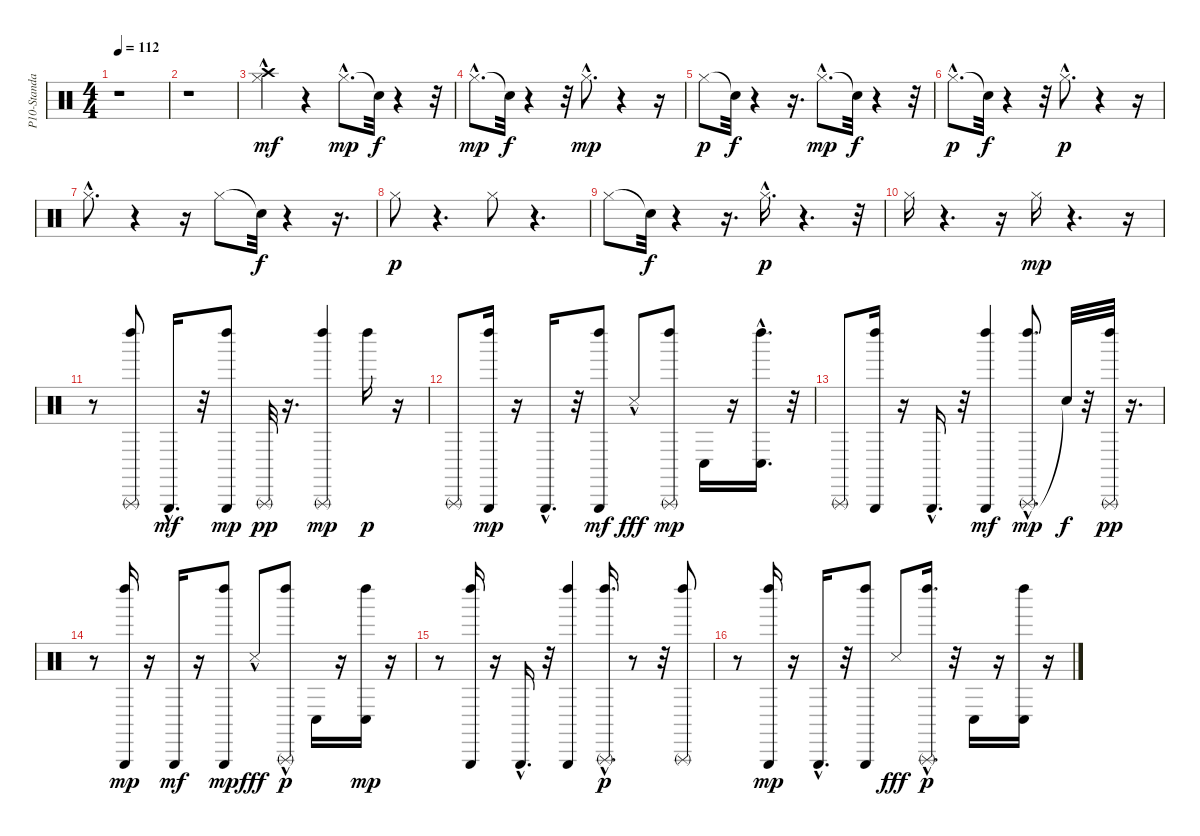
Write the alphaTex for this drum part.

\track ("P10-Standard Kit" "P10-Standa") {instrument percussion}
\staff {score}
\articulation defaults
\ts (4 4)
\tempo 112
\clef neutral
\ks c
r.1{dy pp} |
r.1 |
("Crash high (hit)" "Hi-Hat (closed)"{hac}).4{dy mf} r.4 "Hi-Hat (closed)"{hac}.8{d dy mp} "Snare (hit)"{t}.32{dy f} r.4 r.32 |
"Hi-Hat (closed)"{hac}.8{d dy mp} "Snare (hit)"{t}.32{dy f} r.4 r.32 "Hi-Hat (closed)"{hac}.8{d dy mp} r.4 r.16 |
"Hi-Hat (closed)".8{dy p} "Snare (hit)"{t}.32{dy f} r.4 r.16{d} "Hi-Hat (closed)"{hac}.8{d dy mp} "Snare (hit)"{t}.32{dy f} r.4 r.32 |
"Hi-Hat (closed)"{hac}.8{d dy p} "Snare (hit)"{t}.32{dy f} r.4 r.32 "Hi-Hat (closed)"{hac}.8{d dy p} r.4 r.16 |
"Hi-Hat (closed)"{hac}.8{d} r.4 r.16 "Hi-Hat (closed)".8 "Snare (hit)"{t}.32{dy f} r.4 r.16{d} |
"Hi-Hat (closed)".8{dy p} r.4{d} "Hi-Hat (closed)".8 r.4{d} |
"Hi-Hat (closed)".8 "Snare (hit)"{t}.32{dy f} r.4 r.16{d} "Hi-Hat (closed)"{hac}.16{d dy p} r.4{d} r.32 |
"Hi-Hat (closed)".16 r.4{d} r.16 "Hi-Hat (closed)".16{dy mp} r.4{d} r.16 |
r.8 ("Left Maraca (hit)" "Triangle (rnute)").8 "Triangle (hit)"{hac}.16{d dy mf} r.32 ("Triangle (hit)" "Left Maraca (hit)").8{dy mp} "Triangle (rnute)".32{dy pp} r.16{d} ("Left Maraca (hit)" "Triangle (rnute)").4{dy mp} "Left Maraca (hit)".16{dy p} r.16 |
"Triangle (rnute)".8 ("Left Maraca (hit)" "Triangle (hit)").16{dy mp} r.16 "Triangle (hit)"{hac}.16{d} r.32 ("Left Maraca (hit)" "Triangle (hit)").8{dy mf} "Snare (side stick) 3"{hac}.8{dy fff} ("Triangle (rnute)" "Left Maraca (hit)").8{dy mp} "Conga low (hit)".16 r.16 ("Left Maraca (hit)" "Conga low (hit)"{hac}).16{d} r.32 |
"Triangle (rnute)".8 ("Left Maraca (hit)" "Triangle (hit)").16 r.16 "Triangle (hit)"{hac}.16{d} r.32 ("Left Maraca (hit)" "Triangle (hit)").4{dy mf} ("Triangle (rnute)"{hac} "Left Maraca (hit)").8{d dy mp} "Snare (hit)"{t}.32{dy f} r.32 ("Left Maraca (hit)" "Triangle (rnute)").32{dy pp} r.16{d} |
r.8 ("Left Maraca (hit)" "Triangle (hit)").16{dy mp} r.16 "Triangle (hit)".16{dy mf} r.16 ("Left Maraca (hit)" "Triangle (hit)").8{dy mp} "Snare (side stick) 3"{hac}.8{dy fff} ("Left Maraca (hit)" "Triangle (rnute)"{hac}).8{dy p} "Conga low (hit)".16 r.16 ("Left Maraca (hit)" "Conga low (hit)").16{dy mp} r.16 |
r.8 ("Left Maraca (hit)" "Triangle (hit)").16 r.16 "Triangle (hit)"{hac}.16{d} r.32 ("Left Maraca (hit)" "Triangle (hit)").4 ("Triangle (rnute)"{hac} "Left Maraca (hit)").16{d dy p} r.8 r.32 ("Left Maraca (hit)" "Triangle (rnute)").8 |
r.8 ("Left Maraca (hit)" "Triangle (hit)").16{dy mp} r.16 "Triangle (hit)"{hac}.16{d} r.32 ("Left Maraca (hit)" "Triangle (hit)").8 "Snare (side stick) 3".8{dy fff} ("Left Maraca (hit)" "Triangle (rnute)"{hac}).16{d dy p} r.32 "Conga low (hit)".16 r.16 ("Left Maraca (hit)" "Conga low (hit)").16 r.16
